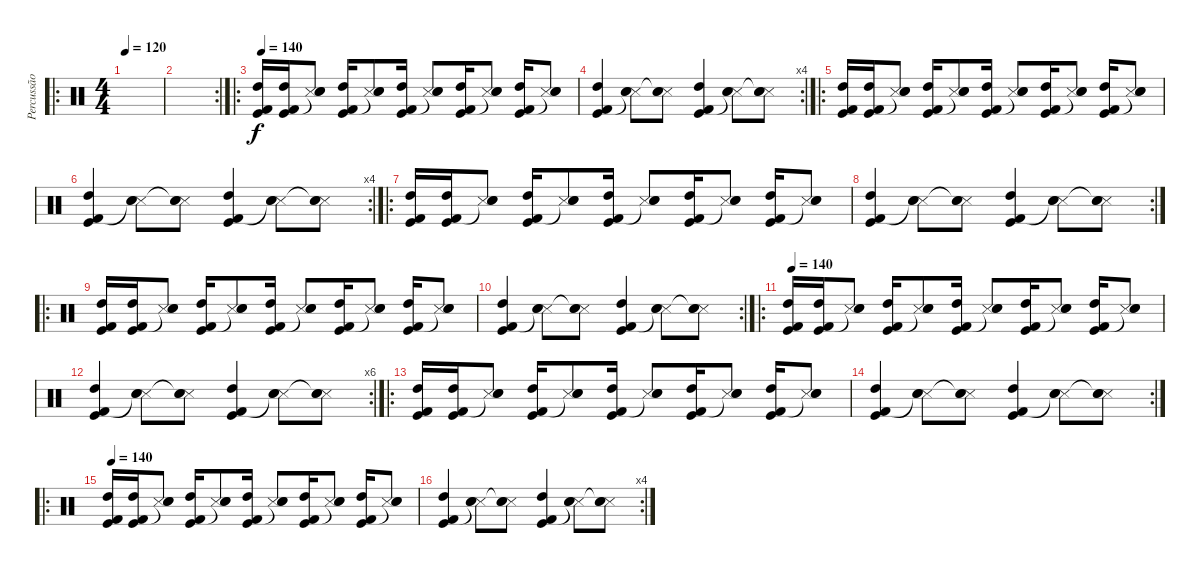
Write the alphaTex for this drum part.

\track ("Percussão" "Percussão") {instrument percussion}
\staff {score}
\articulation defaults
\ro
\ts (4 4)
\tempo 120
\clef neutral
\ks c
|
\rc 2
|
\ro
\tempo 140
("Kick (hit)" "High Tom (hit)" "Kick (hit) 2").16 ("Kick (hit)" "High Tom (hit)" "Kick (hit) 2").16 ("Snare (side stick) 3" "Snare (hit) 2" "Snare (hit)"{t}).8 ("Kick (hit)" "High Tom (hit)" "Kick (hit) 2").16 ("Snare (side stick) 3" "Snare (hit) 2" "Snare (hit)"{t}).8 ("Kick (hit)" "High Tom (hit)" "Kick (hit) 2").16 ("Snare (side stick) 3" "Snare (hit) 2" "Snare (hit)"{t}).8 ("Kick (hit)" "High Tom (hit)" "Kick (hit) 2").16 ("Snare (side stick) 3" "Snare (hit) 2" "Snare (hit)"{t}).8 ("Kick (hit)" "High Tom (hit)" "Kick (hit) 2").16 ("Snare (side stick) 3" "Snare (hit) 2" "Snare (hit)"{t}).8 |
\rc 4
("Kick (hit)" "High Tom (hit)" "Kick (hit) 2").4 ("Snare (side stick) 3" "Snare (hit) 2" "Snare (hit)"{t}).8 ("Snare (side stick) 3" "Snare (hit) 2" "Snare (hit)"{t}).8 ("Kick (hit)" "High Tom (hit)" "Kick (hit) 2").4 ("Snare (side stick) 3" "Snare (hit) 2" "Snare (hit)"{t}).8 ("Snare (side stick) 3" "Snare (hit) 2" "Snare (hit)"{t}).8 |
\ro
("Kick (hit)" "High Tom (hit)" "Kick (hit) 2").16 ("Kick (hit)" "High Tom (hit)" "Kick (hit) 2").16 ("Snare (side stick) 3" "Snare (hit) 2" "Snare (hit)"{t}).8 ("Kick (hit)" "High Tom (hit)" "Kick (hit) 2").16 ("Snare (side stick) 3" "Snare (hit) 2" "Snare (hit)"{t}).8 ("Kick (hit)" "High Tom (hit)" "Kick (hit) 2").16 ("Snare (side stick) 3" "Snare (hit) 2" "Snare (hit)"{t}).8 ("Kick (hit)" "High Tom (hit)" "Kick (hit) 2").16 ("Snare (side stick) 3" "Snare (hit) 2" "Snare (hit)"{t}).8 ("Kick (hit)" "High Tom (hit)" "Kick (hit) 2").16 ("Snare (side stick) 3" "Snare (hit) 2" "Snare (hit)"{t}).8 |
\rc 4
("Kick (hit)" "High Tom (hit)" "Kick (hit) 2").4 ("Snare (side stick) 3" "Snare (hit) 2" "Snare (hit)"{t}).8 ("Snare (side stick) 3" "Snare (hit) 2" "Snare (hit)"{t}).8 ("Kick (hit)" "High Tom (hit)" "Kick (hit) 2").4 ("Snare (side stick) 3" "Snare (hit) 2" "Snare (hit)"{t}).8 ("Snare (side stick) 3" "Snare (hit) 2" "Snare (hit)"{t}).8 |
\ro
("Kick (hit)" "High Tom (hit)" "Kick (hit) 2").16 ("Kick (hit)" "High Tom (hit)" "Kick (hit) 2").16 ("Snare (side stick) 3" "Snare (hit) 2" "Snare (hit)"{t}).8 ("Kick (hit)" "High Tom (hit)" "Kick (hit) 2").16 ("Snare (side stick) 3" "Snare (hit) 2" "Snare (hit)"{t}).8 ("Kick (hit)" "High Tom (hit)" "Kick (hit) 2").16 ("Snare (side stick) 3" "Snare (hit) 2" "Snare (hit)"{t}).8 ("Kick (hit)" "High Tom (hit)" "Kick (hit) 2").16 ("Snare (side stick) 3" "Snare (hit) 2" "Snare (hit)"{t}).8 ("Kick (hit)" "High Tom (hit)" "Kick (hit) 2").16 ("Snare (side stick) 3" "Snare (hit) 2" "Snare (hit)"{t}).8 |
\rc 2
("Kick (hit)" "High Tom (hit)" "Kick (hit) 2").4 ("Snare (side stick) 3" "Snare (hit) 2" "Snare (hit)"{t}).8 ("Snare (side stick) 3" "Snare (hit) 2" "Snare (hit)"{t}).8 ("Kick (hit)" "High Tom (hit)" "Kick (hit) 2").4 ("Snare (side stick) 3" "Snare (hit) 2" "Snare (hit)"{t}).8 ("Snare (side stick) 3" "Snare (hit) 2" "Snare (hit)"{t}).8 |
\ro
("Kick (hit)" "High Tom (hit)" "Kick (hit) 2").16 ("Kick (hit)" "High Tom (hit)" "Kick (hit) 2").16 ("Snare (side stick) 3" "Snare (hit) 2" "Snare (hit)"{t}).8 ("Kick (hit)" "High Tom (hit)" "Kick (hit) 2").16 ("Snare (side stick) 3" "Snare (hit) 2" "Snare (hit)"{t}).8 ("Kick (hit)" "High Tom (hit)" "Kick (hit) 2").16 ("Snare (side stick) 3" "Snare (hit) 2" "Snare (hit)"{t}).8 ("Kick (hit)" "High Tom (hit)" "Kick (hit) 2").16 ("Snare (side stick) 3" "Snare (hit) 2" "Snare (hit)"{t}).8 ("Kick (hit)" "High Tom (hit)" "Kick (hit) 2").16 ("Snare (side stick) 3" "Snare (hit) 2" "Snare (hit)"{t}).8 |
\rc 2
("Kick (hit)" "High Tom (hit)" "Kick (hit) 2").4 ("Snare (side stick) 3" "Snare (hit) 2" "Snare (hit)"{t}).8 ("Snare (side stick) 3" "Snare (hit) 2" "Snare (hit)"{t}).8 ("Kick (hit)" "High Tom (hit)" "Kick (hit) 2").4 ("Snare (side stick) 3" "Snare (hit) 2" "Snare (hit)"{t}).8 ("Snare (side stick) 3" "Snare (hit) 2" "Snare (hit)"{t}).8 |
\ro
\tempo 140
("Kick (hit)" "High Tom (hit)" "Kick (hit) 2").16 ("Kick (hit)" "High Tom (hit)" "Kick (hit) 2").16 ("Snare (side stick) 3" "Snare (hit) 2" "Snare (hit)"{t}).8 ("Kick (hit)" "High Tom (hit)" "Kick (hit) 2").16 ("Snare (side stick) 3" "Snare (hit) 2" "Snare (hit)"{t}).8 ("Kick (hit)" "High Tom (hit)" "Kick (hit) 2").16 ("Snare (side stick) 3" "Snare (hit) 2" "Snare (hit)"{t}).8 ("Kick (hit)" "High Tom (hit)" "Kick (hit) 2").16 ("Snare (side stick) 3" "Snare (hit) 2" "Snare (hit)"{t}).8 ("Kick (hit)" "High Tom (hit)" "Kick (hit) 2").16 ("Snare (side stick) 3" "Snare (hit) 2" "Snare (hit)"{t}).8 |
\rc 6
("Kick (hit)" "High Tom (hit)" "Kick (hit) 2").4 ("Snare (side stick) 3" "Snare (hit) 2" "Snare (hit)"{t}).8 ("Snare (side stick) 3" "Snare (hit) 2" "Snare (hit)"{t}).8 ("Kick (hit)" "High Tom (hit)" "Kick (hit) 2").4 ("Snare (side stick) 3" "Snare (hit) 2" "Snare (hit)"{t}).8 ("Snare (side stick) 3" "Snare (hit) 2" "Snare (hit)"{t}).8 |
\ro
("Kick (hit)" "High Tom (hit)" "Kick (hit) 2").16 ("Kick (hit)" "High Tom (hit)" "Kick (hit) 2").16 ("Snare (side stick) 3" "Snare (hit) 2" "Snare (hit)"{t}).8 ("Kick (hit)" "High Tom (hit)" "Kick (hit) 2").16 ("Snare (side stick) 3" "Snare (hit) 2" "Snare (hit)"{t}).8 ("Kick (hit)" "High Tom (hit)" "Kick (hit) 2").16 ("Snare (side stick) 3" "Snare (hit) 2" "Snare (hit)"{t}).8 ("Kick (hit)" "High Tom (hit)" "Kick (hit) 2").16 ("Snare (side stick) 3" "Snare (hit) 2" "Snare (hit)"{t}).8 ("Kick (hit)" "High Tom (hit)" "Kick (hit) 2").16 ("Snare (side stick) 3" "Snare (hit) 2" "Snare (hit)"{t}).8 |
\rc 2
("Kick (hit)" "High Tom (hit)" "Kick (hit) 2").4 ("Snare (side stick) 3" "Snare (hit) 2" "Snare (hit)"{t}).8 ("Snare (side stick) 3" "Snare (hit) 2" "Snare (hit)"{t}).8 ("Kick (hit)" "High Tom (hit)" "Kick (hit) 2").4 ("Snare (side stick) 3" "Snare (hit) 2" "Snare (hit)"{t}).8 ("Snare (side stick) 3" "Snare (hit) 2" "Snare (hit)"{t}).8 |
\ro
\tempo 140
("Kick (hit)" "High Tom (hit)" "Kick (hit) 2").16 ("Kick (hit)" "High Tom (hit)" "Kick (hit) 2").16 ("Snare (side stick) 3" "Snare (hit) 2" "Snare (hit)"{t}).8 ("Kick (hit)" "High Tom (hit)" "Kick (hit) 2").16 ("Snare (side stick) 3" "Snare (hit) 2" "Snare (hit)"{t}).8 ("Kick (hit)" "High Tom (hit)" "Kick (hit) 2").16 ("Snare (side stick) 3" "Snare (hit) 2" "Snare (hit)"{t}).8 ("Kick (hit)" "High Tom (hit)" "Kick (hit) 2").16 ("Snare (side stick) 3" "Snare (hit) 2" "Snare (hit)"{t}).8 ("Kick (hit)" "High Tom (hit)" "Kick (hit) 2").16 ("Snare (side stick) 3" "Snare (hit) 2" "Snare (hit)"{t}).8 |
\rc 4
("Kick (hit)" "High Tom (hit)" "Kick (hit) 2").4 ("Snare (side stick) 3" "Snare (hit) 2" "Snare (hit)"{t}).8 ("Snare (side stick) 3" "Snare (hit) 2" "Snare (hit)"{t}).8 ("Kick (hit)" "High Tom (hit)" "Kick (hit) 2").4 ("Snare (side stick) 3" "Snare (hit) 2" "Snare (hit)"{t}).8 ("Snare (side stick) 3" "Snare (hit) 2" "Snare (hit)"{t}).8
